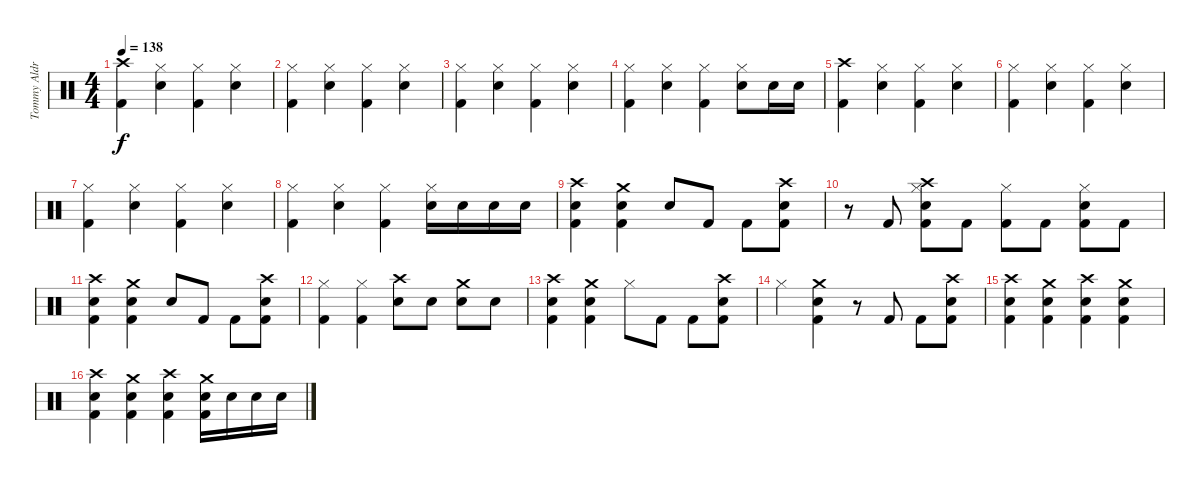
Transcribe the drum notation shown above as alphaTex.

\track ("Tommy Aldridge" "Tommy Aldr") {instrument percussion}
\staff {score}
\articulation defaults
\ts (4 4)
\tempo 138
\clef neutral
\ks c
("Crash high (hit)" "Kick (hit) 2").4{dy f} ("Snare (hit) 2" "Hi-Hat (closed)").4 ("Hi-Hat (closed)" "Kick (hit) 2").4 ("Snare (hit) 2" "Hi-Hat (closed)").4 |
("Hi-Hat (closed)" "Kick (hit) 2").4 ("Snare (hit) 2" "Hi-Hat (closed)").4 ("Hi-Hat (closed)" "Kick (hit) 2").4 ("Snare (hit) 2" "Hi-Hat (closed)").4 |
("Hi-Hat (closed)" "Kick (hit) 2").4 ("Snare (hit) 2" "Hi-Hat (closed)").4 ("Hi-Hat (closed)" "Kick (hit) 2").4 ("Snare (hit) 2" "Hi-Hat (closed)").4 |
("Hi-Hat (closed)" "Kick (hit) 2").4 ("Snare (hit) 2" "Hi-Hat (closed)").4 ("Hi-Hat (closed)" "Kick (hit) 2").4 ("Snare (hit) 2" "Hi-Hat (closed)").8 "Snare (hit) 2".16 "Snare (hit) 2".16 |
("Crash high (hit)" "Kick (hit) 2").4 ("Snare (hit) 2" "Hi-Hat (closed)").4 ("Hi-Hat (closed)" "Kick (hit) 2").4 ("Snare (hit) 2" "Hi-Hat (closed)").4 |
("Hi-Hat (closed)" "Kick (hit) 2").4 ("Snare (hit) 2" "Hi-Hat (closed)").4 ("Hi-Hat (closed)" "Kick (hit) 2").4 ("Snare (hit) 2" "Hi-Hat (closed)").4 |
("Hi-Hat (closed)" "Kick (hit) 2").4 ("Snare (hit) 2" "Hi-Hat (closed)").4 ("Hi-Hat (closed)" "Kick (hit) 2").4 ("Snare (hit) 2" "Hi-Hat (closed)").4 |
("Hi-Hat (closed)" "Kick (hit) 2").4 ("Snare (hit) 2" "Hi-Hat (closed)").4 ("Hi-Hat (closed)" "Kick (hit) 2").4 ("Snare (hit) 2" "Hi-Hat (closed)").16 "Snare (hit) 2".16 "Snare (hit) 2".16 "Snare (hit) 2".16 |
("Crash high (hit)" "Snare (hit) 2" "Kick (hit) 2").4 ("Crash medium (hit)" "Snare (hit) 2" "Kick (hit) 2").4 "Snare (hit) 2".8 "Kick (hit) 2".8 "Kick (hit) 2".8 ("Crash high (hit)" "Snare (hit) 2" "Kick (hit) 2").8 |
r.8 "Kick (hit) 2".8 ("Crash high (hit)" "Snare (hit) 2" "Hi-Hat (closed)" "Kick (hit) 2").8 "Kick (hit) 2".8 ("Hi-Hat (closed)" "Kick (hit) 2").8 "Kick (hit) 2".8 ("Snare (hit) 2" "Hi-Hat (closed)" "Kick (hit) 2").8 "Kick (hit) 2".8 |
("Crash high (hit)" "Snare (hit) 2" "Kick (hit) 2").4 ("Crash medium (hit)" "Snare (hit) 2" "Kick (hit) 2").4 "Snare (hit) 2".8 "Kick (hit) 2".8 "Kick (hit) 2".8 ("Crash high (hit)" "Snare (hit) 2" "Kick (hit) 2").8 |
("Hi-Hat (closed)" "Kick (hit) 2").4 ("Hi-Hat (closed)" "Kick (hit) 2").4 ("Crash high (hit)" "Snare (hit) 2").8 "Snare (hit) 2".8 ("Crash medium (hit)" "Snare (hit) 2").8 "Snare (hit) 2".8 |
("Crash high (hit)" "Snare (hit) 2" "Kick (hit) 2").4 ("Crash medium (hit)" "Snare (hit) 2" "Kick (hit) 2").4 "Hi-Hat (closed)".8 "Kick (hit) 2".8 "Kick (hit) 2".8 ("Crash high (hit)" "Snare (hit) 2" "Kick (hit) 2").8 |
"Hi-Hat (closed)".4 ("Crash medium (hit)" "Snare (hit) 2" "Kick (hit) 2").4 r.8 "Kick (hit) 2".8 "Kick (hit) 2".8 ("Crash high (hit)" "Snare (hit) 2" "Kick (hit) 2").8 |
("Crash high (hit)" "Snare (hit) 2" "Kick (hit) 2").4 ("Crash medium (hit)" "Snare (hit) 2" "Kick (hit) 2").4 ("Crash high (hit)" "Snare (hit) 2" "Kick (hit) 2").4 ("Crash medium (hit)" "Snare (hit) 2" "Kick (hit) 2").4 |
("Crash high (hit)" "Snare (hit) 2" "Kick (hit) 2").4 ("Crash medium (hit)" "Snare (hit) 2" "Kick (hit) 2").4 ("Crash high (hit)" "Snare (hit) 2" "Kick (hit) 2").4 ("Crash medium (hit)" "Snare (hit) 2" "Kick (hit) 2").16 "Snare (hit) 2".16 "Snare (hit) 2".16 "Snare (hit) 2".16
